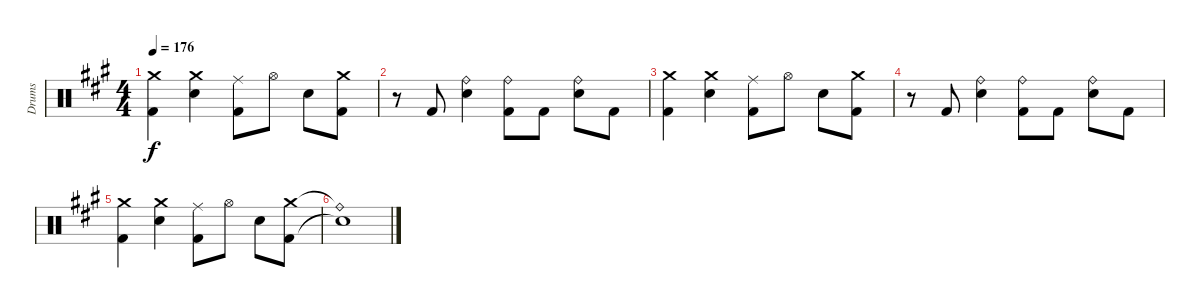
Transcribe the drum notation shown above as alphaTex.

\track ("Drums" "Drums") {instrument percussion}
\staff {score}
\articulation defaults
\ts (4 4)
\tempo 176
\clef neutral
\ks a
("Crash medium (hit)" "Kick (hit) 2").4{dy f} ("Crash medium (hit)" "Electric Snare (hit)").4 ("Ride (middle)" "Kick (hit) 2").8 "Hi-Hat (open)".8 "Electric Snare (hit)".8 ("Crash medium (hit)" "Kick (hit) 2").8 |
r.8 "Kick (hit) 2".8 ("Ride (bell)" "Electric Snare (hit)").4 ("Ride (bell)" "Kick (hit) 2").8 "Kick (hit) 2".8 ("Ride (bell)" "Electric Snare (hit)").8 "Kick (hit) 2".8 |
("Crash medium (hit)" "Kick (hit) 2").4 ("Crash medium (hit)" "Electric Snare (hit)").4 ("Ride (middle)" "Kick (hit) 2").8 "Hi-Hat (open)".8 "Electric Snare (hit)".8 ("Crash medium (hit)" "Kick (hit) 2").8 |
r.8 "Kick (hit) 2".8 ("Ride (bell)" "Electric Snare (hit)").4 ("Ride (bell)" "Kick (hit) 2").8 "Kick (hit) 2".8 ("Ride (bell)" "Electric Snare (hit)").8 "Kick (hit) 2".8 |
("Crash medium (hit)" "Kick (hit) 2").4 ("Crash medium (hit)" "Electric Snare (hit)").4 ("Ride (middle)" "Kick (hit) 2").8 "Hi-Hat (open)".8 "Electric Snare (hit)".8 ("Crash medium (hit)" "Kick (hit) 2").8 |
("Ride (bell)"{t} "Snare (hit)"{t}).1
